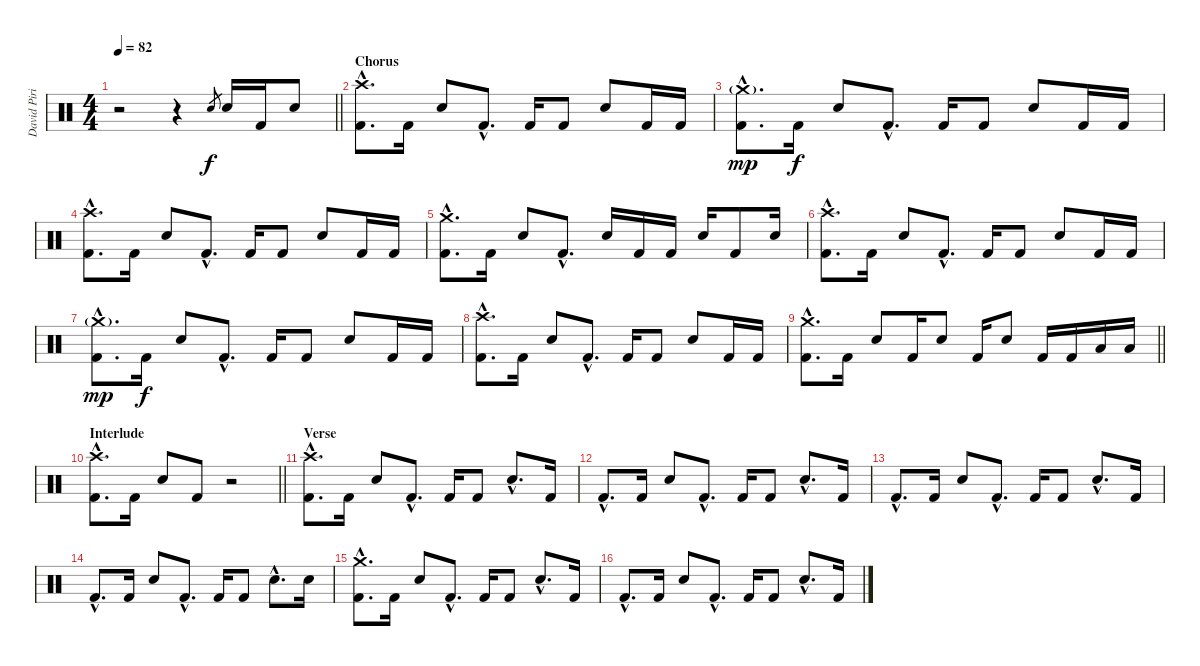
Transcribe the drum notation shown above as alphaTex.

\track ("David Piribauer (Drums)" "David Piri") {instrument percussion}
\staff {score}
\articulation defaults
\ts (4 4)
\tempo 82
\clef neutral
\barLineRight lightlight
\ks c
r.2{dy f} r.4 "Electric Snare (hit)".8{gr} "Electric Snare (hit)".16 "Kick (hit) 2".16 "Electric Snare (hit)".8 |
\section ("" "Chorus")
("Crash high (hit)"{hac} "Kick (hit) 2"{hac}).8{d} "Kick (hit) 2".16 "Electric Snare (hit)".8 "Kick (hit) 2"{hac}.8{d} "Kick (hit) 2".16 "Kick (hit) 2".8 "Electric Snare (hit)".8 "Kick (hit) 2".16 "Kick (hit) 2".16 |
("Crash medium (hit)"{g hac} "Kick (hit) 2"{hac}).8{d dy mp} "Kick (hit) 2".16{dy f} "Electric Snare (hit)".8 "Kick (hit) 2"{hac}.8{d} "Kick (hit) 2".16 "Kick (hit) 2".8 "Electric Snare (hit)".8 "Kick (hit) 2".16 "Kick (hit) 2".16 |
("Crash high (hit)"{hac} "Kick (hit) 2"{hac}).8{d} "Kick (hit) 2".16 "Electric Snare (hit)".8 "Kick (hit) 2"{hac}.8{d} "Kick (hit) 2".16 "Kick (hit) 2".8 "Electric Snare (hit)".8 "Kick (hit) 2".16 "Kick (hit) 2".16 |
("Crash medium (hit)"{hac} "Kick (hit) 2"{hac}).8{d} "Kick (hit) 2".16 "Electric Snare (hit)".8 "Kick (hit) 2"{hac}.8{d} "Electric Snare (hit)".16 "Kick (hit) 2".16 "Kick (hit) 2".16 "Electric Snare (hit)".16 "Kick (hit) 2".8 "Electric Snare (hit)".16 |
("Crash high (hit)"{hac} "Kick (hit) 2"{hac}).8{d} "Kick (hit) 2".16 "Electric Snare (hit)".8 "Kick (hit) 2"{hac}.8{d} "Kick (hit) 2".16 "Kick (hit) 2".8 "Electric Snare (hit)".8 "Kick (hit) 2".16 "Kick (hit) 2".16 |
("Crash medium (hit)"{g hac} "Kick (hit) 2"{hac}).8{d dy mp} "Kick (hit) 2".16{dy f} "Electric Snare (hit)".8 "Kick (hit) 2"{hac}.8{d} "Kick (hit) 2".16 "Kick (hit) 2".8 "Electric Snare (hit)".8 "Kick (hit) 2".16 "Kick (hit) 2".16 |
("Crash high (hit)"{hac} "Kick (hit) 2"{hac}).8{d} "Kick (hit) 2".16 "Electric Snare (hit)".8 "Kick (hit) 2"{hac}.8{d} "Kick (hit) 2".16 "Kick (hit) 2".8 "Electric Snare (hit)".8 "Kick (hit) 2".16 "Kick (hit) 2".16 |
\barLineRight lightlight
("Crash medium (hit)"{hac} "Kick (hit) 2"{hac}).8{d} "Kick (hit) 2".16 "Electric Snare (hit)".8 "Kick (hit) 2".16 "Electric Snare (hit)".8 "Kick (hit) 2".16 "Electric Snare (hit)".8 "Kick (hit) 2".16 "Kick (hit) 2".16 "Low Floor Tom (hit)".16 "Low Floor Tom (hit)".16 |
\section ("" "Interlude")
\barLineRight lightlight
("Crash high (hit)"{hac} "Kick (hit) 2"{hac}).8{d} "Kick (hit) 2".16 "Electric Snare (hit)".8 "Kick (hit) 2".8 r.2 |
\section ("" "Verse")
("Crash high (hit)"{hac} "Kick (hit) 2"{hac}).8{d} "Kick (hit) 2".16 "Electric Snare (hit)".8 "Kick (hit) 2"{hac}.8{d} "Kick (hit) 2".16 "Kick (hit) 2".8 "Electric Snare (hit)"{hac}.8{d} "Kick (hit) 2".16 |
"Kick (hit) 2"{hac}.8{d} "Kick (hit) 2".16 "Electric Snare (hit)".8 "Kick (hit) 2"{hac}.8{d} "Kick (hit) 2".16 "Kick (hit) 2".8 "Electric Snare (hit)"{hac}.8{d} "Kick (hit) 2".16 |
"Kick (hit) 2"{hac}.8{d} "Kick (hit) 2".16 "Electric Snare (hit)".8 "Kick (hit) 2"{hac}.8{d} "Kick (hit) 2".16 "Kick (hit) 2".8 "Electric Snare (hit)"{hac}.8{d} "Kick (hit) 2".16 |
"Kick (hit) 2"{hac}.8{d} "Kick (hit) 2".16 "Electric Snare (hit)".8 "Kick (hit) 2"{hac}.8{d} "Kick (hit) 2".16 "Kick (hit) 2".8 "Electric Snare (hit)"{hac}.8{d} "Electric Snare (hit)".16 |
("Crash medium (hit)"{hac} "Kick (hit) 2"{hac}).8{d} "Kick (hit) 2".16 "Electric Snare (hit)".8 "Kick (hit) 2"{hac}.8{d} "Kick (hit) 2".16 "Kick (hit) 2".8 "Electric Snare (hit)"{hac}.8{d} "Kick (hit) 2".16 |
"Kick (hit) 2"{hac}.8{d} "Kick (hit) 2".16 "Electric Snare (hit)".8 "Kick (hit) 2"{hac}.8{d} "Kick (hit) 2".16 "Kick (hit) 2".8 "Electric Snare (hit)"{hac}.8{d} "Kick (hit) 2".16
